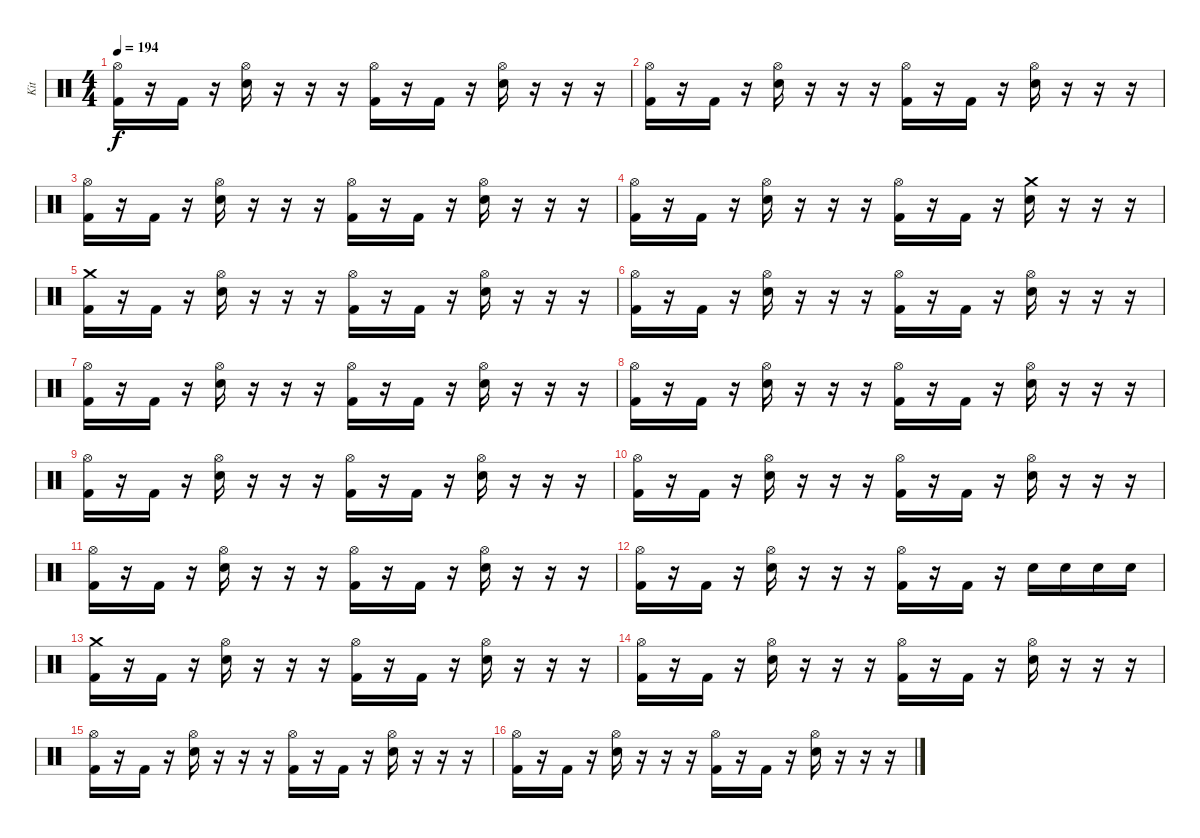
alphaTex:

\track ("Kit" "Kit") {instrument percussion}
\staff {score}
\articulation defaults
\ts (4 4)
\tempo 194
\clef neutral
\ks c
("Hi-Hat (open)" "Kick (hit) 2").16{dy f} r.16 "Kick (hit) 2".16 r.16 ("Hi-Hat (open)" "Electric Snare (hit)").16 r.16 r.16 r.16 ("Hi-Hat (open)" "Kick (hit) 2").16 r.16 "Kick (hit) 2".16 r.16 ("Hi-Hat (open)" "Electric Snare (hit)").16 r.16 r.16 r.16 |
("Hi-Hat (open)" "Kick (hit) 2").16 r.16 "Kick (hit) 2".16 r.16 ("Hi-Hat (open)" "Electric Snare (hit)").16 r.16 r.16 r.16 ("Hi-Hat (open)" "Kick (hit) 2").16 r.16 "Kick (hit) 2".16 r.16 ("Hi-Hat (open)" "Electric Snare (hit)").16 r.16 r.16 r.16 |
("Hi-Hat (open)" "Kick (hit) 2").16 r.16 "Kick (hit) 2".16 r.16 ("Hi-Hat (open)" "Electric Snare (hit)").16 r.16 r.16 r.16 ("Hi-Hat (open)" "Kick (hit) 2").16 r.16 "Kick (hit) 2".16 r.16 ("Hi-Hat (open)" "Electric Snare (hit)").16 r.16 r.16 r.16 |
("Hi-Hat (open)" "Kick (hit) 2").16 r.16 "Kick (hit) 2".16 r.16 ("Hi-Hat (open)" "Electric Snare (hit)").16 r.16 r.16 r.16 ("Hi-Hat (open)" "Kick (hit) 2").16 r.16 "Kick (hit) 2".16 r.16 ("Crash medium (hit)" "Electric Snare (hit)").16 r.16 r.16 r.16 |
("Crash medium (hit)" "Kick (hit) 2").16 r.16 "Kick (hit) 2".16 r.16 ("Hi-Hat (open)" "Electric Snare (hit)").16 r.16 r.16 r.16 ("Hi-Hat (open)" "Kick (hit) 2").16 r.16 "Kick (hit) 2".16 r.16 ("Hi-Hat (open)" "Electric Snare (hit)").16 r.16 r.16 r.16 |
("Hi-Hat (open)" "Kick (hit) 2").16 r.16 "Kick (hit) 2".16 r.16 ("Hi-Hat (open)" "Electric Snare (hit)").16 r.16 r.16 r.16 ("Hi-Hat (open)" "Kick (hit) 2").16 r.16 "Kick (hit) 2".16 r.16 ("Hi-Hat (open)" "Electric Snare (hit)").16 r.16 r.16 r.16 |
("Hi-Hat (open)" "Kick (hit) 2").16 r.16 "Kick (hit) 2".16 r.16 ("Hi-Hat (open)" "Electric Snare (hit)").16 r.16 r.16 r.16 ("Hi-Hat (open)" "Kick (hit) 2").16 r.16 "Kick (hit) 2".16 r.16 ("Hi-Hat (open)" "Electric Snare (hit)").16 r.16 r.16 r.16 |
("Hi-Hat (open)" "Kick (hit) 2").16 r.16 "Kick (hit) 2".16 r.16 ("Hi-Hat (open)" "Electric Snare (hit)").16 r.16 r.16 r.16 ("Hi-Hat (open)" "Kick (hit) 2").16 r.16 "Kick (hit) 2".16 r.16 ("Hi-Hat (open)" "Electric Snare (hit)").16 r.16 r.16 r.16 |
("Hi-Hat (open)" "Kick (hit) 2").16 r.16 "Kick (hit) 2".16 r.16 ("Hi-Hat (open)" "Electric Snare (hit)").16 r.16 r.16 r.16 ("Hi-Hat (open)" "Kick (hit) 2").16 r.16 "Kick (hit) 2".16 r.16 ("Hi-Hat (open)" "Electric Snare (hit)").16 r.16 r.16 r.16 |
("Hi-Hat (open)" "Kick (hit) 2").16 r.16 "Kick (hit) 2".16 r.16 ("Hi-Hat (open)" "Electric Snare (hit)").16 r.16 r.16 r.16 ("Hi-Hat (open)" "Kick (hit) 2").16 r.16 "Kick (hit) 2".16 r.16 ("Hi-Hat (open)" "Electric Snare (hit)").16 r.16 r.16 r.16 |
("Hi-Hat (open)" "Kick (hit) 2").16 r.16 "Kick (hit) 2".16 r.16 ("Hi-Hat (open)" "Electric Snare (hit)").16 r.16 r.16 r.16 ("Hi-Hat (open)" "Kick (hit) 2").16 r.16 "Kick (hit) 2".16 r.16 ("Hi-Hat (open)" "Electric Snare (hit)").16 r.16 r.16 r.16 |
("Hi-Hat (open)" "Kick (hit) 2").16 r.16 "Kick (hit) 2".16 r.16 ("Hi-Hat (open)" "Electric Snare (hit)").16 r.16 r.16 r.16 ("Hi-Hat (open)" "Kick (hit) 2").16 r.16 "Kick (hit) 2".16 r.16 "Electric Snare (hit)".16 "Electric Snare (hit)".16 "Electric Snare (hit)".16 "Electric Snare (hit)".16 |
("Crash medium (hit)" "Kick (hit) 2").16 r.16 "Kick (hit) 2".16 r.16 ("Hi-Hat (open)" "Electric Snare (hit)").16 r.16 r.16 r.16 ("Hi-Hat (open)" "Kick (hit) 2").16 r.16 "Kick (hit) 2".16 r.16 ("Hi-Hat (open)" "Electric Snare (hit)").16 r.16 r.16 r.16 |
("Hi-Hat (open)" "Kick (hit) 2").16 r.16 "Kick (hit) 2".16 r.16 ("Hi-Hat (open)" "Electric Snare (hit)").16 r.16 r.16 r.16 ("Hi-Hat (open)" "Kick (hit) 2").16 r.16 "Kick (hit) 2".16 r.16 ("Hi-Hat (open)" "Electric Snare (hit)").16 r.16 r.16 r.16 |
("Hi-Hat (open)" "Kick (hit) 2").16 r.16 "Kick (hit) 2".16 r.16 ("Hi-Hat (open)" "Electric Snare (hit)").16 r.16 r.16 r.16 ("Hi-Hat (open)" "Kick (hit) 2").16 r.16 "Kick (hit) 2".16 r.16 ("Hi-Hat (open)" "Electric Snare (hit)").16 r.16 r.16 r.16 |
("Hi-Hat (open)" "Kick (hit) 2").16 r.16 "Kick (hit) 2".16 r.16 ("Hi-Hat (open)" "Electric Snare (hit)").16 r.16 r.16 r.16 ("Hi-Hat (open)" "Kick (hit) 2").16 r.16 "Kick (hit) 2".16 r.16 ("Hi-Hat (open)" "Electric Snare (hit)").16 r.16 r.16 r.16
